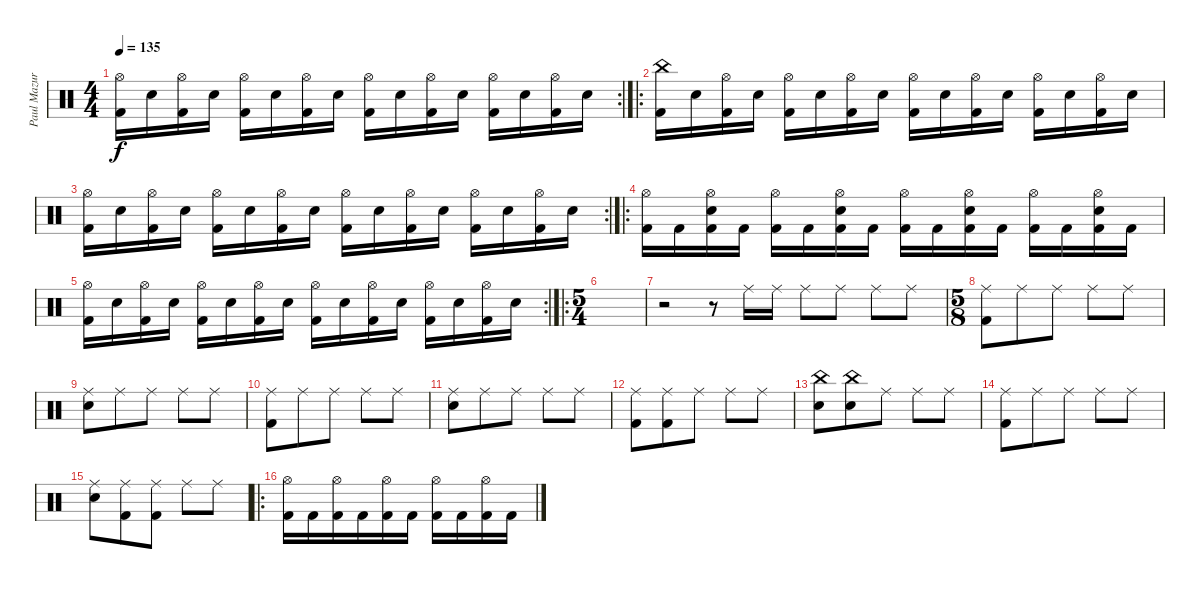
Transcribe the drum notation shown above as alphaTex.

\track ("Paul Mazurkiewicz" "Paul Mazur") {instrument percussion}
\staff {score}
\articulation defaults
\rc 2
\ts (4 4)
\tempo 135
\clef neutral
\ks c
("Hi-Hat (open)" "Kick (hit) 2").16{dy f} "Snare (hit) 2".16 ("Hi-Hat (open)" "Kick (hit) 2").16 "Snare (hit) 2".16 ("Hi-Hat (open)" "Kick (hit) 2").16 "Snare (hit) 2".16 ("Hi-Hat (open)" "Kick (hit) 2").16 "Snare (hit) 2".16 ("Hi-Hat (open)" "Kick (hit) 2").16 "Snare (hit) 2".16 ("Hi-Hat (open)" "Kick (hit) 2").16 "Snare (hit) 2".16 ("Hi-Hat (open)" "Kick (hit) 2").16 "Snare (hit) 2".16 ("Hi-Hat (open)" "Kick (hit) 2").16 "Snare (hit) 2".16 |
\ro
("China (hit)" "Kick (hit) 2").16 "Snare (hit) 2".16 ("Hi-Hat (open)" "Kick (hit) 2").16 "Snare (hit) 2".16 ("Hi-Hat (open)" "Kick (hit) 2").16 "Snare (hit) 2".16 ("Hi-Hat (open)" "Kick (hit) 2").16 "Snare (hit) 2".16 ("Hi-Hat (open)" "Kick (hit) 2").16 "Snare (hit) 2".16 ("Hi-Hat (open)" "Kick (hit) 2").16 "Snare (hit) 2".16 ("Hi-Hat (open)" "Kick (hit) 2").16 "Snare (hit) 2".16 ("Hi-Hat (open)" "Kick (hit) 2").16 "Snare (hit) 2".16 |
\rc 2
("Hi-Hat (open)" "Kick (hit) 2").16 "Snare (hit) 2".16 ("Hi-Hat (open)" "Kick (hit) 2").16 "Snare (hit) 2".16 ("Hi-Hat (open)" "Kick (hit) 2").16 "Snare (hit) 2".16 ("Hi-Hat (open)" "Kick (hit) 2").16 "Snare (hit) 2".16 ("Hi-Hat (open)" "Kick (hit) 2").16 "Snare (hit) 2".16 ("Hi-Hat (open)" "Kick (hit) 2").16 "Snare (hit) 2".16 ("Hi-Hat (open)" "Kick (hit) 2").16 "Snare (hit) 2".16 ("Hi-Hat (open)" "Kick (hit) 2").16 "Snare (hit) 2".16 |
\ro
("Hi-Hat (open)" "Kick (hit) 2").16 "Kick (hit) 2".16 ("Hi-Hat (open)" "Kick (hit) 2" "Snare (hit) 2").16 "Kick (hit) 2".16 ("Hi-Hat (open)" "Kick (hit) 2").16 "Kick (hit) 2".16 ("Hi-Hat (open)" "Kick (hit) 2" "Snare (hit) 2").16 "Kick (hit) 2".16 ("Hi-Hat (open)" "Kick (hit) 2").16 "Kick (hit) 2".16 ("Hi-Hat (open)" "Kick (hit) 2" "Snare (hit) 2").16 "Kick (hit) 2".16 ("Hi-Hat (open)" "Kick (hit) 2").16 "Kick (hit) 2".16 ("Hi-Hat (open)" "Kick (hit) 2" "Snare (hit) 2").16 "Kick (hit) 2".16 |
\rc 2
("Hi-Hat (open)" "Kick (hit) 2").16 "Snare (hit) 2".16 ("Hi-Hat (open)" "Kick (hit) 2").16 "Snare (hit) 2".16 ("Hi-Hat (open)" "Kick (hit) 2").16 "Snare (hit) 2".16 ("Hi-Hat (open)" "Kick (hit) 2").16 "Snare (hit) 2".16 ("Hi-Hat (open)" "Kick (hit) 2").16 "Snare (hit) 2".16 ("Hi-Hat (open)" "Kick (hit) 2").16 "Snare (hit) 2".16 ("Hi-Hat (open)" "Kick (hit) 2").16 "Snare (hit) 2".16 ("Hi-Hat (open)" "Kick (hit) 2").16 "Snare (hit) 2".16 |
\ro
\ts (5 4)
|
r.2 r.8 "Ride (middle)".16 "Ride (middle)".16 "Ride (middle)".8 "Ride (middle)".8 "Ride (middle)".8 "Ride (middle)".8 |
\ts (5 8)
("Kick (hit) 2" "Ride (middle)").8 "Ride (middle)".8 "Ride (middle)".8 "Ride (middle)".8 "Ride (middle)".8 |
("Snare (hit) 2" "Ride (middle)").8 "Ride (middle)".8 "Ride (middle)".8 "Ride (middle)".8 "Ride (middle)".8 |
("Kick (hit) 2" "Ride (middle)").8 "Ride (middle)".8 "Ride (middle)".8 "Ride (middle)".8 "Ride (middle)".8 |
("Snare (hit) 2" "Ride (middle)").8 "Ride (middle)".8 "Ride (middle)".8 "Ride (middle)".8 "Ride (middle)".8 |
("Kick (hit) 2" "Ride (middle)").8 ("Kick (hit) 2" "Ride (middle)").8 "Ride (middle)".8 "Ride (middle)".8 "Ride (middle)".8 |
("Snare (hit) 2" "China (hit)").8 ("Snare (hit) 2" "China (hit)").8 "Ride (middle)".8 "Ride (middle)".8 "Ride (middle)".8 |
("Kick (hit) 2" "Ride (middle)").8 "Ride (middle)".8 "Ride (middle)".8 "Ride (middle)".8 "Ride (middle)".8 |
("Snare (hit) 2" "Ride (middle)").8 ("Kick (hit) 2" "Ride (middle)").8 ("Kick (hit) 2" "Ride (middle)").8 "Ride (middle)".8 "Ride (middle)".8 |
\ro
("Hi-Hat (open)" "Kick (hit) 2").16 "Kick (hit) 2".16 ("Hi-Hat (open)" "Kick (hit) 2").16 "Kick (hit) 2".16 ("Hi-Hat (open)" "Kick (hit) 2").16 "Kick (hit) 2".16 ("Hi-Hat (open)" "Kick (hit) 2").16 "Kick (hit) 2".16 ("Hi-Hat (open)" "Kick (hit) 2").16 "Kick (hit) 2".16
